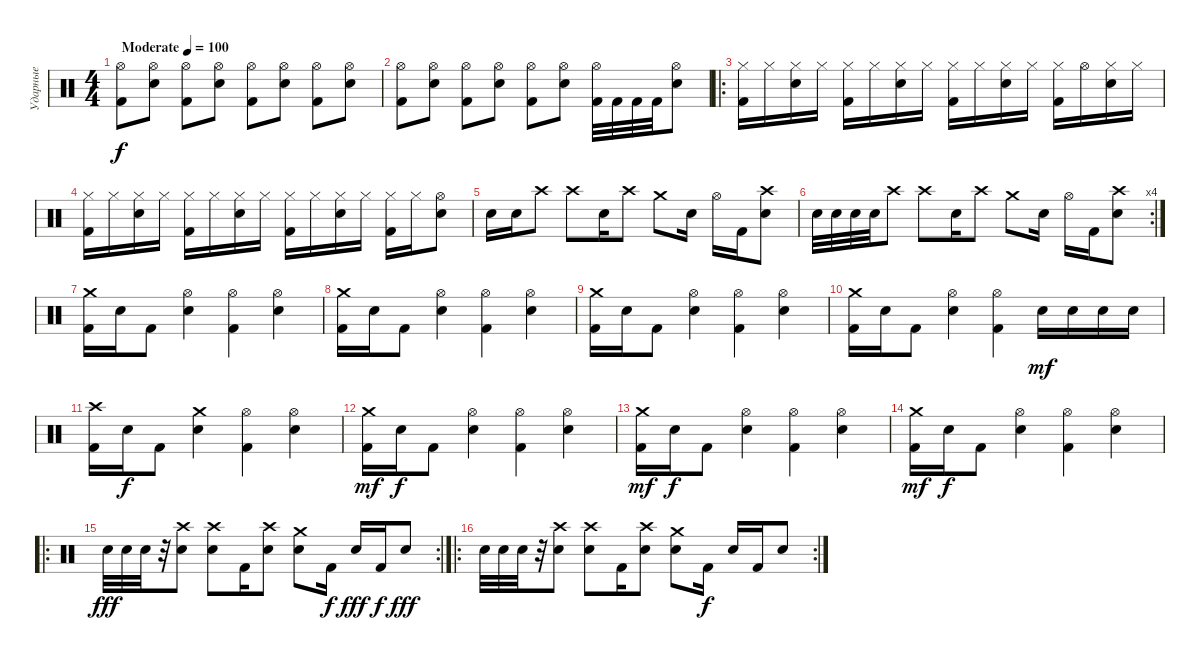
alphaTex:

\track ("Ударные" "Ударные") {instrument percussion}
\staff {score}
\articulation defaults
\ts (4 4)
\tempo (100 "Moderate")
\clef neutral
\ks c
("Hi-Hat (open)" "Kick (hit) 2").8{dy f} ("Hi-Hat (open)" "Electric Snare (hit)").8 ("Hi-Hat (open)" "Kick (hit) 2").8 ("Hi-Hat (open)" "Electric Snare (hit)").8 ("Hi-Hat (open)" "Kick (hit) 2").8 ("Hi-Hat (open)" "Electric Snare (hit)").8 ("Hi-Hat (open)" "Kick (hit) 2").8 ("Hi-Hat (open)" "Electric Snare (hit)").8 |
("Hi-Hat (open)" "Kick (hit) 2").8 ("Hi-Hat (open)" "Electric Snare (hit)").8 ("Hi-Hat (open)" "Kick (hit) 2").8 ("Hi-Hat (open)" "Electric Snare (hit)").8 ("Hi-Hat (open)" "Kick (hit) 2").8 ("Hi-Hat (open)" "Electric Snare (hit)").8 ("Hi-Hat (open)" "Kick (hit) 2").32 "Kick (hit) 2".32 "Kick (hit) 2".32 "Kick (hit) 2".32 ("Hi-Hat (open)" "Electric Snare (hit)").8 |
\ro
("Hi-Hat (closed)" "Kick (hit) 2").16 "Hi-Hat (closed)".16 ("Hi-Hat (closed)" "Electric Snare (hit)").16 "Hi-Hat (closed)".16 ("Hi-Hat (closed)" "Kick (hit) 2").16 "Hi-Hat (closed)".16 ("Hi-Hat (closed)" "Electric Snare (hit)").16 "Hi-Hat (closed)".16 ("Hi-Hat (closed)" "Kick (hit) 2").16 "Hi-Hat (closed)".16 ("Hi-Hat (closed)" "Electric Snare (hit)").16 "Hi-Hat (closed)".16 ("Hi-Hat (closed)" "Kick (hit) 2").16 "Hi-Hat (open)".16 ("Hi-Hat (closed)" "Electric Snare (hit)").16 "Hi-Hat (closed)".16 |
("Hi-Hat (closed)" "Kick (hit) 2").16 "Hi-Hat (closed)".16 ("Hi-Hat (closed)" "Electric Snare (hit)").16 "Hi-Hat (closed)".16 ("Hi-Hat (closed)" "Kick (hit) 2").16 "Hi-Hat (closed)".16 ("Hi-Hat (closed)" "Electric Snare (hit)").16 "Hi-Hat (closed)".16 ("Hi-Hat (closed)" "Kick (hit) 2").16 "Hi-Hat (closed)".16 ("Hi-Hat (closed)" "Electric Snare (hit)").16 "Hi-Hat (closed)".16 ("Hi-Hat (closed)" "Kick (hit) 2").16 "Hi-Hat (closed)".16 ("Electric Snare (hit)" "Hi-Hat (open)").8 |
"Electric Snare (hit)".16 "Electric Snare (hit)".16 "Crash high (hit)".8 "Crash high (hit)".8 "Electric Snare (hit)".16 "Crash high (hit)".8 "Crash medium (hit)".8 "Electric Snare (hit)".16 "Hi-Hat (open)".16 "Kick (hit) 2".16 ("Crash high (hit)" "Electric Snare (hit)").8 |
\rc 4 "Electric Snare (hit)".32 "Electric Snare (hit)".32 "Electric Snare (hit)".32 "Electric Snare (hit)".32 "Crash high (hit)".8 "Crash high (hit)".8 "Electric Snare (hit)".16 "Crash high (hit)".8 "Crash medium (hit)".8 "Electric Snare (hit)".16 "Hi-Hat (open)".16 "Kick (hit) 2".16
("Crash high (hit)" "Electric Snare (hit)").8 |
("Kick (hit) 2" "Crash medium (hit)").16 "Electric Snare (hit)".16 "Kick (hit) 2".8 ("Electric Snare (hit)" "Hi-Hat (open)").4 ("Hi-Hat (open)" "Kick (hit) 2").4 ("Hi-Hat (open)" "Electric Snare (hit)").4 |
("Kick (hit) 2" "Crash medium (hit)").16 "Electric Snare (hit)".16 "Kick (hit) 2".8 ("Electric Snare (hit)" "Hi-Hat (open)").4 ("Hi-Hat (open)" "Kick (hit) 2").4 ("Hi-Hat (open)" "Electric Snare (hit)").4 |
("Kick (hit) 2" "Crash medium (hit)").16 "Electric Snare (hit)".16 "Kick (hit) 2".8 ("Electric Snare (hit)" "Hi-Hat (open)").4 ("Hi-Hat (open)" "Kick (hit) 2").4 ("Hi-Hat (open)" "Electric Snare (hit)").4 |
("Kick (hit) 2" "Crash medium (hit)").16 "Electric Snare (hit)".16 "Kick (hit) 2".8 ("Electric Snare (hit)" "Hi-Hat (open)").4 ("Hi-Hat (open)" "Kick (hit) 2").4 "Electric Snare (hit)".16{dy mf} "Electric Snare (hit)".16 "Electric Snare (hit)".16 "Electric Snare (hit)".16 |
("Kick (hit) 2" "Crash high (hit)").16 "Electric Snare (hit)".16{dy f} "Kick (hit) 2".8 ("Electric Snare (hit)" "Crash medium (hit)").4 ("Hi-Hat (open)" "Kick (hit) 2").4 ("Hi-Hat (open)" "Electric Snare (hit)").4 |
("Kick (hit) 2" "Crash medium (hit)").16{dy mf} "Electric Snare (hit)".16{dy f} "Kick (hit) 2".8 ("Electric Snare (hit)" "Hi-Hat (open)").4 ("Hi-Hat (open)" "Kick (hit) 2").4 ("Hi-Hat (open)" "Electric Snare (hit)").4 |
("Kick (hit) 2" "Crash medium (hit)").16{dy mf} "Electric Snare (hit)".16{dy f} "Kick (hit) 2".8 ("Electric Snare (hit)" "Hi-Hat (open)").4 ("Hi-Hat (open)" "Kick (hit) 2").4 ("Hi-Hat (open)" "Electric Snare (hit)").4 |
("Kick (hit) 2" "Crash medium (hit)").16{dy mf} "Electric Snare (hit)".16{dy f} "Kick (hit) 2".8 ("Electric Snare (hit)" "Hi-Hat (open)").4 ("Hi-Hat (open)" "Kick (hit) 2").4 ("Hi-Hat (open)" "Electric Snare (hit)").4 |
\ro
\rc 2 "Snare (hit) 2".32{dy fff} "Snare (hit) 2".32 "Snare (hit) 2".32
r.32 ("Electric Snare (hit)" "Crash high (hit)").8 ("Electric Snare (hit)" "Crash high (hit)").8 "Kick (hit) 2".16 ("Crash high (hit)" "Snare (hit) 2").8 ("Crash medium (hit)" "Snare (hit) 2").8 "Kick (hit) 2".16{dy f} "Electric Snare (hit)".16{dy fff} "Kick (hit) 2".16{dy f} "Electric Snare (hit)".8{dy fff} |
\ro
\rc 2 "Snare (hit) 2".32 "Snare (hit) 2".32 "Snare (hit) 2".32
r.32 ("Electric Snare (hit)" "Crash high (hit)").8 ("Electric Snare (hit)" "Crash high (hit)").8 "Kick (hit) 2".16 ("Crash high (hit)" "Snare (hit) 2").8 ("Crash medium (hit)" "Snare (hit) 2").8 "Kick (hit) 2".16{dy f} "Electric Snare (hit)".16 "Kick (hit) 2".16 "Electric Snare (hit)".8
